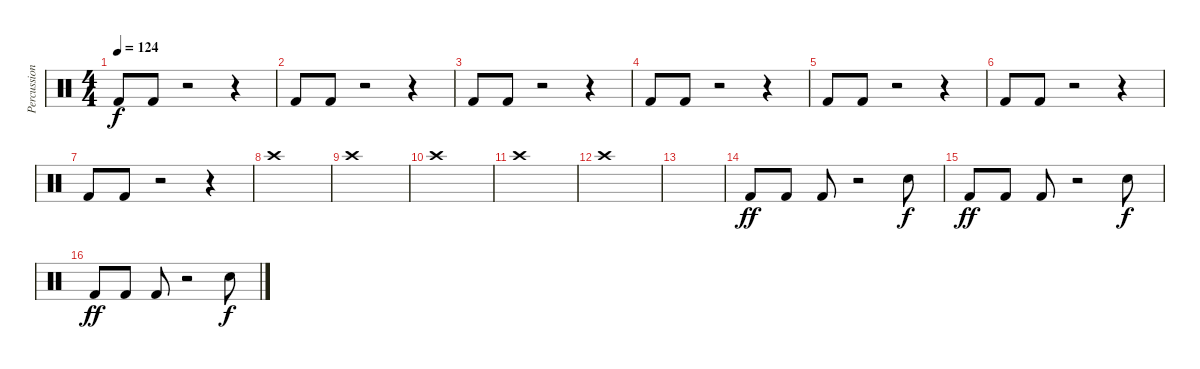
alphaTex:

\track ("Percussion" "Percussion") {instrument percussion}
\staff {score}
\articulation defaults
\ts (4 4)
\tempo 124
\clef neutral
\ks c "Kick (hit) 2".8{dy f} "Kick (hit) 2".8
r.2 r.4 |
"Kick (hit) 2".8 "Kick (hit) 2".8 r.2 r.4 |
"Kick (hit) 2".8 "Kick (hit) 2".8 r.2 r.4 |
"Kick (hit) 2".8 "Kick (hit) 2".8 r.2 r.4 |
"Kick (hit) 2".8 "Kick (hit) 2".8 r.2 r.4 |
"Kick (hit) 2".8 "Kick (hit) 2".8 r.2 r.4 |
"Kick (hit) 2".8 "Kick (hit) 2".8 r.2 r.4 |
"Crash high (hit)".1 |
"Crash high (hit)".1 |
"Crash high (hit)".1 |
"Crash high (hit)".1 |
"Crash high (hit)".1 |
|
"Kick (hit) 2".8{dy ff} "Kick (hit) 2".8 "Kick (hit) 2".8 r.2 "Electric Snare (hit)".8{dy f} |
"Kick (hit) 2".8{dy ff} "Kick (hit) 2".8 "Kick (hit) 2".8 r.2 "Electric Snare (hit)".8{dy f} |
"Kick (hit) 2".8{dy ff} "Kick (hit) 2".8 "Kick (hit) 2".8 r.2 "Electric Snare (hit)".8{dy f}
